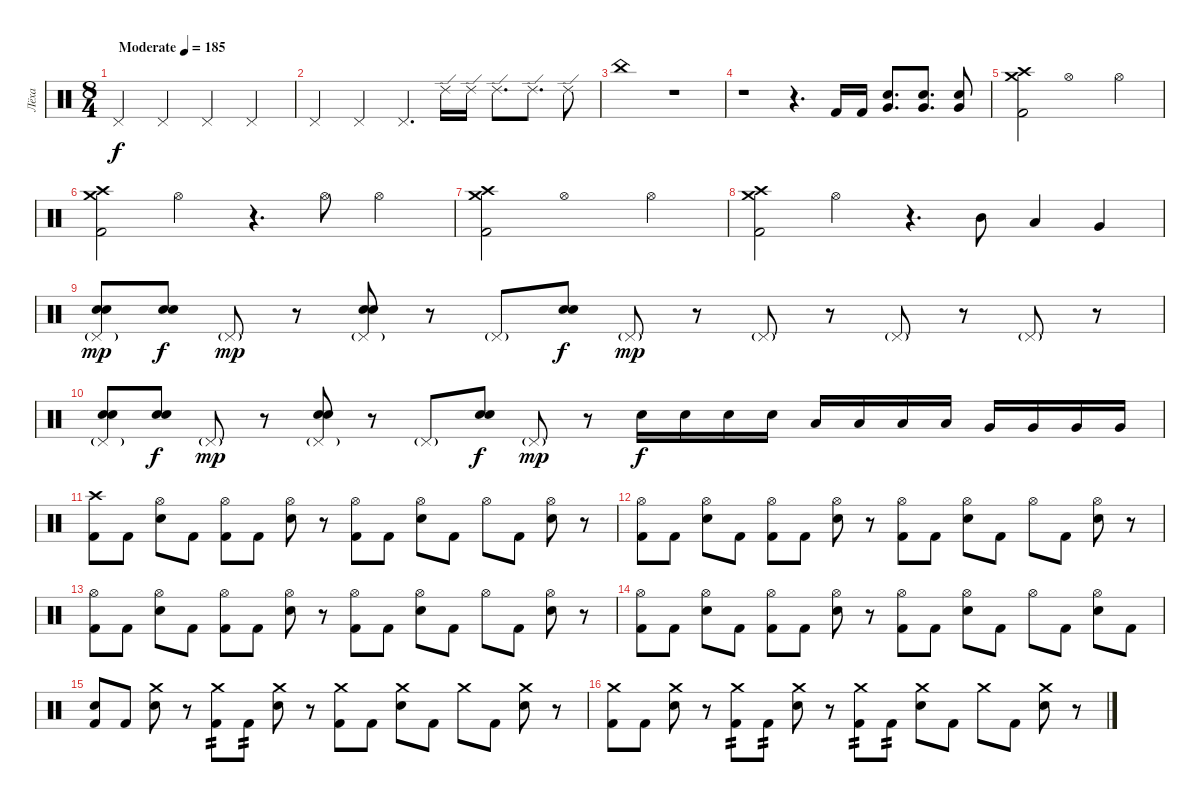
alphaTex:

\track ("Лёха" "Лёха") {instrument percussion}
\staff {score}
\articulation defaults
\ts (8 4)
\tempo (185 "Moderate")
\clef neutral
\ks c "Pedal Hi-Hat (hit)".2{dy f} "Pedal Hi-Hat (hit)".2 "Pedal Hi-Hat (hit)".2 "Pedal Hi-Hat (hit)".2
|
"Pedal Hi-Hat (hit)".2 "Pedal Hi-Hat (hit)".2 "Pedal Hi-Hat (hit)".4{d} "Ride (edge) 2".16 "Ride (edge) 2".16 "Ride (edge) 2".8{d} "Ride (edge) 2".8{d} "Ride (edge) 2".8 |
"China (hit)".1 r.1 |
r.1 r.4{d} "Kick (hit) 2".16 "Kick (hit) 2".16 ("Electric Snare (hit)" "Very Low Tom (hit)").8{d} ("Electric Snare (hit)" "Very Low Tom (hit)").8{d} ("Electric Snare (hit)" "Very Low Tom (hit)").8 |
("Crash high (hit)" "Crash medium (hit)" "Kick (hit) 2").2 "Hi-Hat (open)".1 "Hi-Hat (open)".2 |
("Crash high (hit)" "Crash medium (hit)" "Kick (hit) 2").2 "Hi-Hat (open)".2 r.4{d} "Hi-Hat (open)".8 "Hi-Hat (open)".2 |
("Crash high (hit)" "Crash medium (hit)" "Kick (hit) 2").2 "Hi-Hat (open)".1 "Hi-Hat (open)".2 |
("Crash high (hit)" "Crash medium (hit)" "Kick (hit) 2").2 "Hi-Hat (open)".2 r.4{d} "Mid Tom (hit)".8 "Low Tom (hit)".4 "Very Low Tom (hit)".4 |
("Pedal Hi-Hat (hit)"{g} "Electric Snare (hit)" "Electric Snare (hit)").8{dy mp} ("Electric Snare (hit)" "Electric Snare (hit)").8{dy f} "Pedal Hi-Hat (hit)"{g}.8{dy mp} r.8 ("Pedal Hi-Hat (hit)"{g} "Electric Snare (hit)" "Electric Snare (hit)").8 r.8 "Pedal Hi-Hat (hit)"{g}.8 ("Electric Snare (hit)" "Electric Snare (hit)").8{dy f} "Pedal Hi-Hat (hit)"{g}.8{dy mp} r.8 "Pedal Hi-Hat (hit)"{g}.8 r.8 "Pedal Hi-Hat (hit)"{g}.8 r.8 "Pedal Hi-Hat (hit)"{g}.8 r.8 |
("Pedal Hi-Hat (hit)"{g} "Electric Snare (hit)" "Electric Snare (hit)").8 ("Electric Snare (hit)" "Electric Snare (hit)").8{dy f} "Pedal Hi-Hat (hit)"{g}.8{dy mp} r.8 ("Pedal Hi-Hat (hit)"{g} "Electric Snare (hit)" "Electric Snare (hit)").8 r.8 "Pedal Hi-Hat (hit)"{g}.8 ("Electric Snare (hit)" "Electric Snare (hit)").8{dy f} "Pedal Hi-Hat (hit)"{g}.8{dy mp} r.8 "Electric Snare (hit)".16{dy f} "Electric Snare (hit)".16 "Electric Snare (hit)".16 "Electric Snare (hit)".16 "Low Tom (hit)".16 "Low Tom (hit)".16 "Low Tom (hit)".16 "Low Tom (hit)".16 "Very Low Tom (hit)".16 "Very Low Tom (hit)".16 "Very Low Tom (hit)".16 "Very Low Tom (hit)".16 |
("Crash high (hit)" "Kick (hit) 2").8 "Kick (hit) 2".8 ("Hi-Hat (open)" "Electric Snare (hit)").8 "Kick (hit) 2".8 ("Hi-Hat (open)" "Kick (hit) 2").8 "Kick (hit) 2".8 ("Hi-Hat (open)" "Electric Snare (hit)").8 r.8 ("Hi-Hat (open)" "Kick (hit) 2").8 "Kick (hit) 2".8 ("Hi-Hat (open)" "Electric Snare (hit)").8 "Kick (hit) 2".8 "Hi-Hat (open)".8 "Kick (hit) 2".8 ("Hi-Hat (open)" "Electric Snare (hit)").8 r.8 |
("Hi-Hat (open)" "Kick (hit) 2").8 "Kick (hit) 2".8 ("Hi-Hat (open)" "Electric Snare (hit)").8 "Kick (hit) 2".8 ("Hi-Hat (open)" "Kick (hit) 2").8 "Kick (hit) 2".8 ("Hi-Hat (open)" "Electric Snare (hit)").8 r.8 ("Hi-Hat (open)" "Kick (hit) 2").8 "Kick (hit) 2".8 ("Hi-Hat (open)" "Electric Snare (hit)").8 "Kick (hit) 2".8 "Hi-Hat (open)".8 "Kick (hit) 2".8 ("Hi-Hat (open)" "Electric Snare (hit)").8 r.8 |
("Hi-Hat (open)" "Kick (hit) 2").8 "Kick (hit) 2".8 ("Hi-Hat (open)" "Electric Snare (hit)").8 "Kick (hit) 2".8 ("Hi-Hat (open)" "Kick (hit) 2").8 "Kick (hit) 2".8 ("Hi-Hat (open)" "Electric Snare (hit)").8 r.8 ("Hi-Hat (open)" "Kick (hit) 2").8 "Kick (hit) 2".8 ("Hi-Hat (open)" "Electric Snare (hit)").8 "Kick (hit) 2".8 "Hi-Hat (open)".8 "Kick (hit) 2".8 ("Hi-Hat (open)" "Electric Snare (hit)").8 r.8 |
("Hi-Hat (open)" "Kick (hit) 2").8 "Kick (hit) 2".8 ("Hi-Hat (open)" "Electric Snare (hit)").8 "Kick (hit) 2".8 ("Hi-Hat (open)" "Kick (hit) 2").8 "Kick (hit) 2".8 ("Hi-Hat (open)" "Electric Snare (hit)").8 r.8 ("Hi-Hat (open)" "Kick (hit) 2").8 "Kick (hit) 2".8 ("Hi-Hat (open)" "Electric Snare (hit)").8 "Kick (hit) 2".8 "Hi-Hat (open)".8 "Kick (hit) 2".8 ("Hi-Hat (open)" "Electric Snare (hit)").8 "Kick (hit) 2".8 |
("Electric Snare (hit)" "Kick (hit) 2").8 "Kick (hit) 2".8 ("Crash medium (hit)" "Electric Snare (hit)").8 r.8 ("Crash medium (hit)" "Kick (hit) 2").8{tp 2} "Kick (hit) 2".8{tp 2} ("Crash medium (hit)" "Electric Snare (hit)").8 r.8 ("Crash medium (hit)" "Kick (hit) 2").8 "Kick (hit) 2".8 ("Crash medium (hit)" "Electric Snare (hit)").8 "Kick (hit) 2".8 "Crash medium (hit)".8 "Kick (hit) 2".8 ("Crash medium (hit)" "Electric Snare (hit)").8 r.8 |
("Crash medium (hit)" "Kick (hit) 2").8 "Kick (hit) 2".8 ("Crash medium (hit)" "Electric Snare (hit)").8 r.8 ("Crash medium (hit)" "Kick (hit) 2").8{tp 2} "Kick (hit) 2".8{tp 2} ("Crash medium (hit)" "Electric Snare (hit)").8 r.8 ("Crash medium (hit)" "Kick (hit) 2").8{tp 2} "Kick (hit) 2".8{tp 2} ("Crash medium (hit)" "Electric Snare (hit)").8 "Kick (hit) 2".8 "Crash medium (hit)".8 "Kick (hit) 2".8 ("Crash medium (hit)" "Electric Snare (hit)").8 r.8
